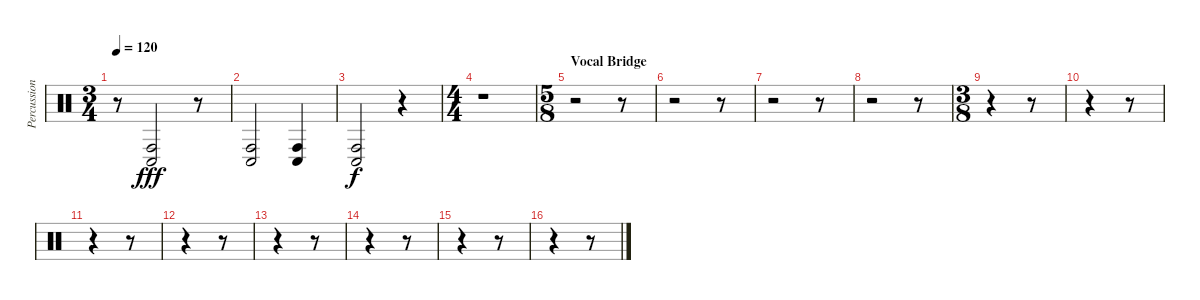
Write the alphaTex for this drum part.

\track ("Percussion" "Percussion") {instrument percussion}
\staff {score}
\articulation defaults
\ts (3 4)
\tempo 120
\clef neutral
\ks c
r.8{dy fff} ("Conga low (hit)" "Conga high (hit)").2 r.8 |
("Conga low (hit)" "Conga high (hit)").2 ("Conga low (hit)" "Conga high (hit)").4 |
("Conga low (hit)" "Conga high (hit)").2{dy f} r.4 |
\ts (4 4)
r.1 |
\ts (5 8)
\section ("" "Vocal Bridge")
r.2 r.8 |
r.2 r.8 |
r.2 r.8 |
r.2 r.8 |
\ts (3 8)
r.4 r.8 |
r.4 r.8 |
r.4 r.8 |
r.4 r.8 |
r.4 r.8 |
r.4 r.8 |
r.4 r.8 |
r.4 r.8
